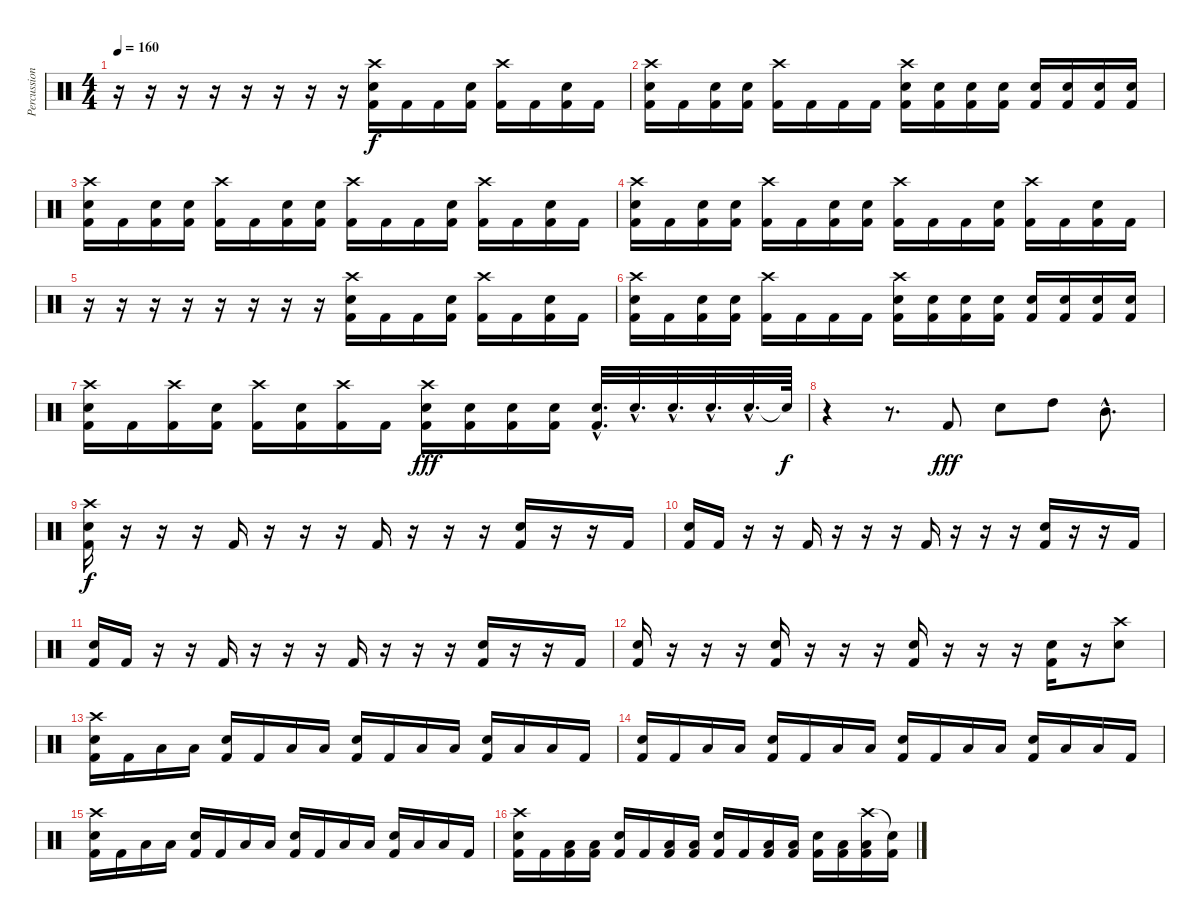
\track ("Percussion" "Percussion") {instrument percussion}
\staff {score}
\articulation defaults
\ts (4 4)
\tempo 160
\clef neutral
\ks c
r.16{dy f} r.16 r.16 r.16 r.16 r.16 r.16 r.16 ("Crash high (hit)" "Electric Snare (hit)" "Kick (hit) 2").16 "Kick (hit) 2".16 "Kick (hit) 2".16 ("Electric Snare (hit)" "Kick (hit) 2").16 ("Crash high (hit)" "Kick (hit) 2").16 "Kick (hit) 2".16 ("Electric Snare (hit)" "Kick (hit) 2").16 "Kick (hit) 2".16 |
("Crash high (hit)" "Electric Snare (hit)" "Kick (hit) 2").16 "Kick (hit) 2".16 ("Electric Snare (hit)" "Kick (hit) 2").16 ("Electric Snare (hit)" "Kick (hit) 2").16 ("Crash high (hit)" "Kick (hit) 2").16 "Kick (hit) 2".16 "Kick (hit) 2".16 "Kick (hit) 2".16 ("Crash high (hit)" "Electric Snare (hit)" "Kick (hit) 2").16 ("Electric Snare (hit)" "Kick (hit) 2").16 ("Electric Snare (hit)" "Kick (hit) 2").16 ("Electric Snare (hit)" "Kick (hit) 2").16 ("Electric Snare (hit)" "Kick (hit) 2").16 ("Electric Snare (hit)" "Kick (hit) 2").16 ("Electric Snare (hit)" "Kick (hit) 2").16 ("Electric Snare (hit)" "Kick (hit) 2").16 |
("Crash high (hit)" "Electric Snare (hit)" "Kick (hit) 2").16 "Kick (hit) 2".16 ("Electric Snare (hit)" "Kick (hit) 2").16 ("Electric Snare (hit)" "Kick (hit) 2").16 ("Crash high (hit)" "Kick (hit) 2").16 "Kick (hit) 2".16 ("Electric Snare (hit)" "Kick (hit) 2").16 ("Electric Snare (hit)" "Kick (hit) 2").16 ("Crash high (hit)" "Kick (hit) 2").16 "Kick (hit) 2".16 "Kick (hit) 2".16 ("Electric Snare (hit)" "Kick (hit) 2").16 ("Crash high (hit)" "Kick (hit) 2").16 "Kick (hit) 2".16 ("Electric Snare (hit)" "Kick (hit) 2").16 "Kick (hit) 2".16 |
("Crash high (hit)" "Electric Snare (hit)" "Kick (hit) 2").16 "Kick (hit) 2".16 ("Electric Snare (hit)" "Kick (hit) 2").16 ("Electric Snare (hit)" "Kick (hit) 2").16 ("Crash high (hit)" "Kick (hit) 2").16 "Kick (hit) 2".16 ("Electric Snare (hit)" "Kick (hit) 2").16 ("Electric Snare (hit)" "Kick (hit) 2").16 ("Crash high (hit)" "Kick (hit) 2").16 "Kick (hit) 2".16 "Kick (hit) 2".16 ("Electric Snare (hit)" "Kick (hit) 2").16 ("Crash high (hit)" "Kick (hit) 2").16 "Kick (hit) 2".16 ("Electric Snare (hit)" "Kick (hit) 2").16 "Kick (hit) 2".16 |
r.16 r.16 r.16 r.16 r.16 r.16 r.16 r.16 ("Crash high (hit)" "Electric Snare (hit)" "Kick (hit) 2").16 "Kick (hit) 2".16 "Kick (hit) 2".16 ("Electric Snare (hit)" "Kick (hit) 2").16 ("Crash high (hit)" "Kick (hit) 2").16 "Kick (hit) 2".16 ("Electric Snare (hit)" "Kick (hit) 2").16 "Kick (hit) 2".16 |
("Crash high (hit)" "Electric Snare (hit)" "Kick (hit) 2").16 "Kick (hit) 2".16 ("Electric Snare (hit)" "Kick (hit) 2").16 ("Electric Snare (hit)" "Kick (hit) 2").16 ("Crash high (hit)" "Kick (hit) 2").16 "Kick (hit) 2".16 "Kick (hit) 2".16 "Kick (hit) 2".16 ("Crash high (hit)" "Electric Snare (hit)" "Kick (hit) 2").16 ("Electric Snare (hit)" "Kick (hit) 2").16 ("Electric Snare (hit)" "Kick (hit) 2").16 ("Electric Snare (hit)" "Kick (hit) 2").16 ("Electric Snare (hit)" "Kick (hit) 2").16 ("Electric Snare (hit)" "Kick (hit) 2").16 ("Electric Snare (hit)" "Kick (hit) 2").16 ("Electric Snare (hit)" "Kick (hit) 2").16 |
("Crash high (hit)" "Electric Snare (hit)" "Kick (hit) 2").16 "Kick (hit) 2".16 ("Crash high (hit)" "Kick (hit) 2").16 ("Electric Snare (hit)" "Kick (hit) 2").16 ("Crash high (hit)" "Kick (hit) 2").16 ("Electric Snare (hit)" "Kick (hit) 2").16 ("Crash high (hit)" "Kick (hit) 2").16 "Kick (hit) 2".16 ("Crash high (hit)" "Electric Snare (hit)" "Kick (hit) 2").16{dy fff} ("Electric Snare (hit)" "Kick (hit) 2").16 ("Electric Snare (hit)" "Kick (hit) 2").16 ("Electric Snare (hit)" "Kick (hit) 2").16 ("Electric Snare (hit)"{hac} "Kick (hit) 2"{hac}).32{d} "Electric Snare (hit)"{hac}.32{d} "Electric Snare (hit)"{hac}.32{d} "Electric Snare (hit)"{hac}.32{d} "Electric Snare (hit)"{hac}.32{d} "Snare (hit)"{t}.64{dy f} |
r.4 r.8{d} "Kick (hit) 2".8{dy fff} "Electric Snare (hit)".8 "High Tom (hit)".8 "Mid Tom (hit)"{hac}.8{d} |
("Crash high (hit)" "Electric Snare (hit)" "Kick (hit) 2").16{dy f} r.16 r.16 r.16 "Kick (hit) 2".16 r.16 r.16 r.16 "Kick (hit) 2".16 r.16 r.16 r.16 ("Electric Snare (hit)" "Kick (hit) 2").16 r.16 r.16 "Kick (hit) 2".16 |
("Electric Snare (hit)" "Kick (hit) 2").16 "Kick (hit) 2".16 r.16 r.16 "Kick (hit) 2".16 r.16 r.16 r.16 "Kick (hit) 2".16 r.16 r.16 r.16 ("Electric Snare (hit)" "Kick (hit) 2").16 r.16 r.16 "Kick (hit) 2".16 |
("Electric Snare (hit)" "Kick (hit) 2").16 "Kick (hit) 2".16 r.16 r.16 "Kick (hit) 2".16 r.16 r.16 r.16 "Kick (hit) 2".16 r.16 r.16 r.16 ("Electric Snare (hit)" "Kick (hit) 2").16 r.16 r.16 "Kick (hit) 2".16 |
("Electric Snare (hit)" "Kick (hit) 2").16 r.16 r.16 r.16 ("Electric Snare (hit)" "Kick (hit) 2").16 r.16 r.16 r.16 ("Electric Snare (hit)" "Kick (hit) 2").16 r.16 r.16 r.16 ("Electric Snare (hit)" "Kick (hit) 2").16 r.16 ("Crash high (hit)" "Electric Snare (hit)").8 |
("Crash high (hit)" "Electric Snare (hit)" "Kick (hit) 2").16 "Kick (hit) 2".16 "Low Tom (hit)".16 "Low Tom (hit)".16 ("Electric Snare (hit)" "Kick (hit) 2").16 "Kick (hit) 2".16 "Low Tom (hit)".16 "Low Tom (hit)".16 ("Electric Snare (hit)" "Kick (hit) 2").16 "Kick (hit) 2".16 "Low Tom (hit)".16 "Low Tom (hit)".16 ("Electric Snare (hit)" "Kick (hit) 2").16 "Low Tom (hit)".16 "Low Tom (hit)".16 "Kick (hit) 2".16 |
("Electric Snare (hit)" "Kick (hit) 2").16 "Kick (hit) 2".16 "Low Tom (hit)".16 "Low Tom (hit)".16 ("Electric Snare (hit)" "Kick (hit) 2").16 "Kick (hit) 2".16 "Low Tom (hit)".16 "Low Tom (hit)".16 ("Electric Snare (hit)" "Kick (hit) 2").16 "Kick (hit) 2".16 "Low Tom (hit)".16 "Low Tom (hit)".16 ("Electric Snare (hit)" "Kick (hit) 2").16 "Low Tom (hit)".16 "Low Tom (hit)".16 "Kick (hit) 2".16 |
("Crash high (hit)" "Electric Snare (hit)" "Kick (hit) 2").16 "Kick (hit) 2".16 "Low Tom (hit)".16 "Low Tom (hit)".16 ("Electric Snare (hit)" "Kick (hit) 2").16 "Kick (hit) 2".16 "Low Tom (hit)".16 "Low Tom (hit)".16 ("Electric Snare (hit)" "Kick (hit) 2").16 "Kick (hit) 2".16 "Low Tom (hit)".16 "Low Tom (hit)".16 ("Electric Snare (hit)" "Kick (hit) 2").16 "Low Tom (hit)".16 "Low Tom (hit)".16 "Kick (hit) 2".16 |
("Crash high (hit)" "Electric Snare (hit)" "Kick (hit) 2").16 "Kick (hit) 2".16 ("Low Tom (hit)" "Kick (hit) 2").16 ("Low Tom (hit)" "Kick (hit) 2").16 ("Electric Snare (hit)" "Kick (hit) 2").16 "Kick (hit) 2".16 ("Low Tom (hit)" "Kick (hit) 2").16 ("Low Tom (hit)" "Kick (hit) 2").16 ("Electric Snare (hit)" "Kick (hit) 2").16 "Kick (hit) 2".16 ("Low Tom (hit)" "Kick (hit) 2").16 ("Low Tom (hit)" "Kick (hit) 2").16 ("Electric Snare (hit)" "Kick (hit) 2").16 ("Low Tom (hit)" "Kick (hit) 2").16 ("Crash high (hit)" "Low Tom (hit)" "Kick (hit) 2").16 ("Snare (hit)"{t} "Kick (hit) 2").16
